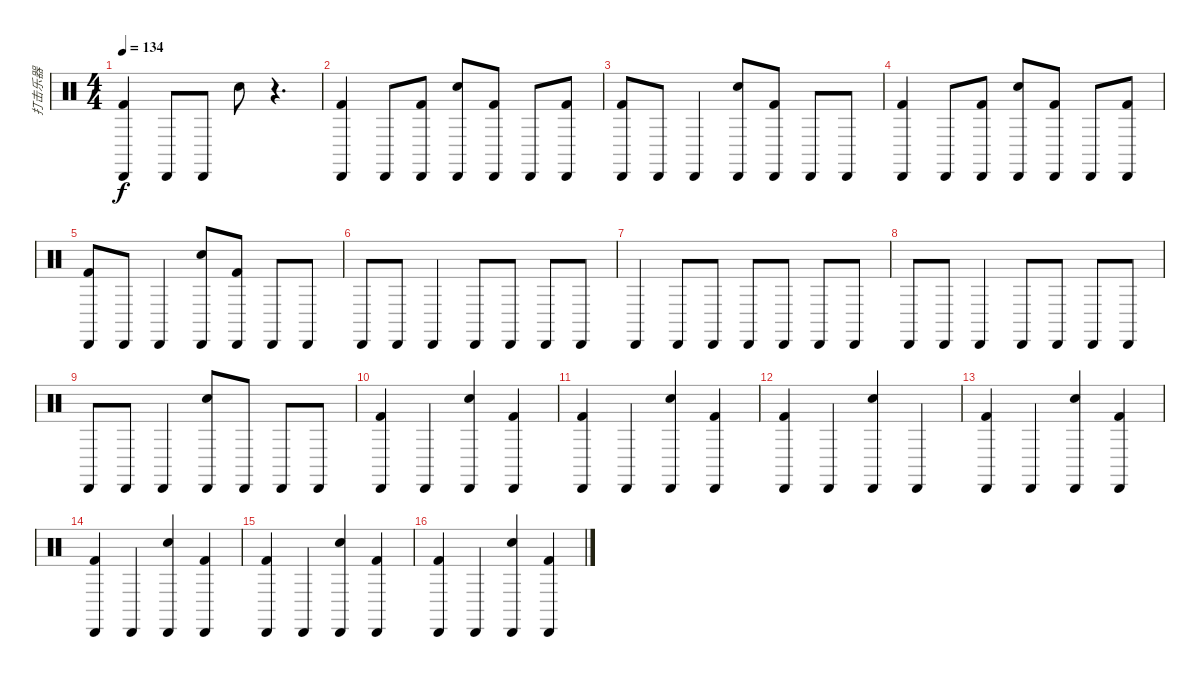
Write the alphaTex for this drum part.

\track ("打击乐器" "打击乐器") {instrument percussion}
\staff {score}
\articulation defaults
\ts (4 4)
\tempo 134
\clef neutral
\ks c
("Cabasa (hit)" "Kick (hit) 2").4{dy f} "Cabasa (hit)".8 "Cabasa (hit)".8 "Snare (hit) 2".8 r.4{d} |
("Cabasa (hit)" "Kick (hit) 2").4 "Cabasa (hit)".8 ("Cabasa (hit)" "Kick (hit) 2").8 ("Snare (hit) 2" "Cabasa (hit)").8 ("Cabasa (hit)" "Kick (hit) 2").8 "Cabasa (hit)".8 ("Cabasa (hit)" "Kick (hit) 2").8 |
("Cabasa (hit)" "Kick (hit) 2").8 "Cabasa (hit)".8 "Cabasa (hit)".4 ("Snare (hit) 2" "Cabasa (hit)").8 ("Cabasa (hit)" "Kick (hit) 2").8 "Cabasa (hit)".8 "Cabasa (hit)".8 |
("Cabasa (hit)" "Kick (hit) 2").4 "Cabasa (hit)".8 ("Cabasa (hit)" "Kick (hit) 2").8 ("Snare (hit) 2" "Cabasa (hit)").8 ("Cabasa (hit)" "Kick (hit) 2").8 "Cabasa (hit)".8 ("Cabasa (hit)" "Kick (hit) 2").8 |
("Cabasa (hit)" "Kick (hit) 2").8 "Cabasa (hit)".8 "Cabasa (hit)".4 ("Snare (hit) 2" "Cabasa (hit)").8 ("Cabasa (hit)" "Kick (hit) 2").8 "Cabasa (hit)".8 "Cabasa (hit)".8 |
"Cabasa (hit)".8 "Cabasa (hit)".8 "Cabasa (hit)".4 "Cabasa (hit)".8 "Cabasa (hit)".8 "Cabasa (hit)".8 "Cabasa (hit)".8 |
"Cabasa (hit)".4 "Cabasa (hit)".8 "Cabasa (hit)".8 "Cabasa (hit)".8 "Cabasa (hit)".8 "Cabasa (hit)".8 "Cabasa (hit)".8 |
"Cabasa (hit)".8 "Cabasa (hit)".8 "Cabasa (hit)".4 "Cabasa (hit)".8 "Cabasa (hit)".8 "Cabasa (hit)".8 "Cabasa (hit)".8 |
"Cabasa (hit)".8 "Cabasa (hit)".8 "Cabasa (hit)".4 ("Snare (hit) 2" "Cabasa (hit)").8 "Cabasa (hit)".8 "Cabasa (hit)".8 "Cabasa (hit)".8 |
("Cabasa (hit)" "Kick (hit) 2").4 "Cabasa (hit)".4 ("Snare (hit) 2" "Cabasa (hit)").4 ("Cabasa (hit)" "Kick (hit) 2").4 |
("Cabasa (hit)" "Kick (hit) 2").4 "Cabasa (hit)".4 ("Snare (hit) 2" "Cabasa (hit)").4 ("Cabasa (hit)" "Kick (hit) 2").4 |
("Cabasa (hit)" "Kick (hit) 2").4 "Cabasa (hit)".4 ("Snare (hit) 2" "Cabasa (hit)").4 "Cabasa (hit)".4 |
("Cabasa (hit)" "Kick (hit) 2").4 "Cabasa (hit)".4 ("Snare (hit) 2" "Cabasa (hit)").4 ("Cabasa (hit)" "Kick (hit) 2").4 |
("Cabasa (hit)" "Kick (hit) 2").4 "Cabasa (hit)".4 ("Snare (hit) 2" "Cabasa (hit)").4 ("Cabasa (hit)" "Kick (hit) 2").4 |
("Cabasa (hit)" "Kick (hit) 2").4 "Cabasa (hit)".4 ("Snare (hit) 2" "Cabasa (hit)").4 ("Cabasa (hit)" "Kick (hit) 2").4 |
("Cabasa (hit)" "Kick (hit) 2").4 "Cabasa (hit)".4 ("Snare (hit) 2" "Cabasa (hit)").4 ("Cabasa (hit)" "Kick (hit) 2").4
